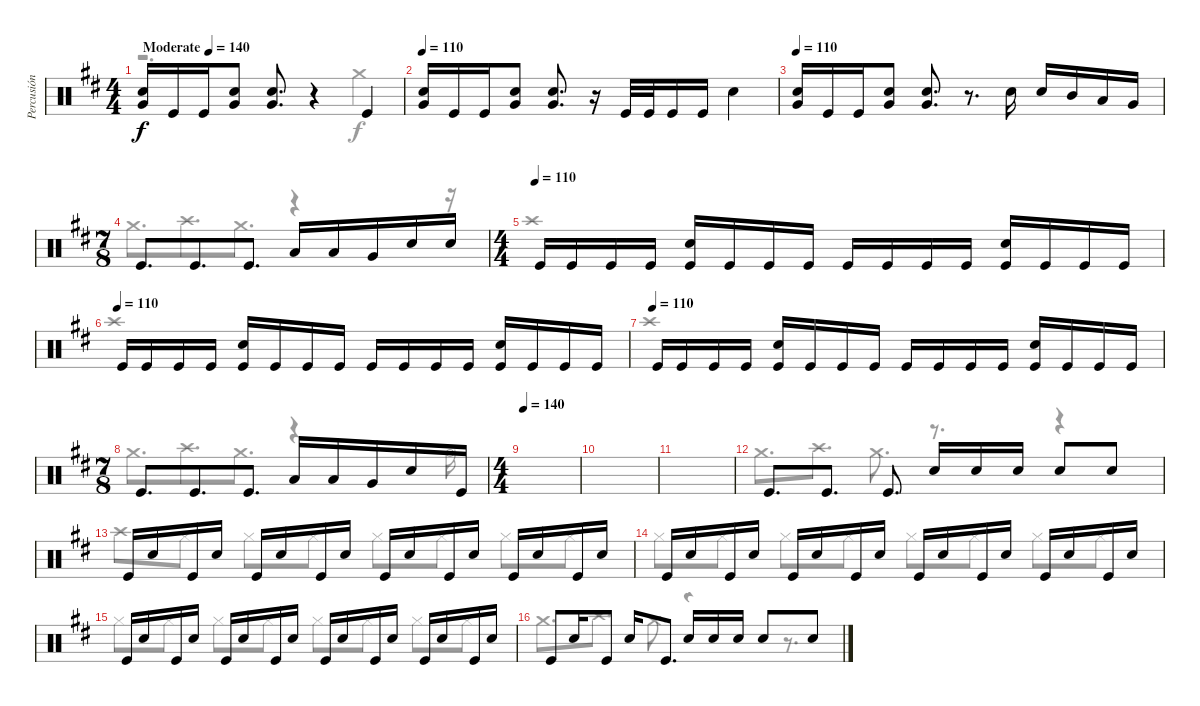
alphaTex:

\track ("Percusión" "Percusión") {instrument percussion}
\staff {score}
\articulation defaults
\voice
\ts (4 4)
\tempo (140 "Moderate")
\tempo 110
\tempo (140 "Moderate")
\clef neutral
\ks bminor
("Snare (hit) 2" "Very Low Tom (hit)").16{dy f} "Kick (hit)".16 "Kick (hit)".16 ("Snare (hit) 2" "Very Low Tom (hit)").8 ("Snare (hit) 2" "Very Low Tom (hit)").8{d} r.4 "Kick (hit)".4 |
\tempo 110
("Snare (hit) 2" "Very Low Tom (hit)").16 "Kick (hit)".16 "Kick (hit)".16 ("Snare (hit) 2" "Very Low Tom (hit)").8 ("Snare (hit) 2" "Very Low Tom (hit)").8{d} r.16 "Kick (hit)".32 "Kick (hit)".32 "Kick (hit)".16 "Kick (hit)".16 "Snare (hit) 2".4 |
\tempo 110
("Snare (hit) 2" "Very Low Tom (hit)").16 "Kick (hit)".16 "Kick (hit)".16 ("Snare (hit) 2" "Very Low Tom (hit)").8 ("Snare (hit) 2" "Very Low Tom (hit)").8{d} r.8{d} "Snare (hit) 2".16 "Snare (hit) 2".16 "Mid Tom (hit)".16 "Low Tom (hit)".16 "Very Low Tom (hit)".16 |
\ts (7 8)
"Kick (hit)".8{d} "Kick (hit)".8{d} "Kick (hit)".8{d} "Low Tom (hit)".16 "Low Tom (hit)".16 "Very Low Tom (hit)".16 "Snare (hit) 2".16 "Snare (hit) 2".16 |
\ts (4 4)
\tempo (110)
"Kick (hit)".16 "Kick (hit)".16 "Kick (hit)".16 "Kick (hit)".16 ("Snare (hit) 2" "Kick (hit)").16 "Kick (hit)".16 "Kick (hit)".16 "Kick (hit)".16 "Kick (hit)".16 "Kick (hit)".16 "Kick (hit)".16 "Kick (hit)".16 ("Snare (hit) 2" "Kick (hit)").16 "Kick (hit)".16 "Kick (hit)".16 "Kick (hit)".16 |
\tempo (110)
"Kick (hit)".16 "Kick (hit)".16 "Kick (hit)".16 "Kick (hit)".16 ("Snare (hit) 2" "Kick (hit)").16 "Kick (hit)".16 "Kick (hit)".16 "Kick (hit)".16 "Kick (hit)".16 "Kick (hit)".16 "Kick (hit)".16 "Kick (hit)".16 ("Snare (hit) 2" "Kick (hit)").16 "Kick (hit)".16 "Kick (hit)".16 "Kick (hit)".16 |
\tempo (110)
"Kick (hit)".16 "Kick (hit)".16 "Kick (hit)".16 "Kick (hit)".16 ("Snare (hit) 2" "Kick (hit)").16 "Kick (hit)".16 "Kick (hit)".16 "Kick (hit)".16 "Kick (hit)".16 "Kick (hit)".16 "Kick (hit)".16 "Kick (hit)".16 ("Snare (hit) 2" "Kick (hit)").16 "Kick (hit)".16 "Kick (hit)".16 "Kick (hit)".16 |
\ts (7 8)
"Kick (hit)".8{d} "Kick (hit)".8{d} "Kick (hit)".8{d} "Low Tom (hit)".16 "Low Tom (hit)".16 "Very Low Tom (hit)".16 "Snare (hit) 2".16 "Kick (hit)".16 |
\ts (4 4)
\tempo 140
|
|
|
"Kick (hit)".8{d} "Kick (hit)".8{d} "Kick (hit)".8{d} "Snare (hit) 2".16 "Snare (hit) 2".16 "Snare (hit) 2".16 "Snare (hit) 2".8 "Snare (hit) 2".8 |
"Kick (hit)".16 "Snare (hit) 2".16 "Kick (hit)".16 "Snare (hit) 2".16 "Kick (hit)".16 "Snare (hit) 2".16 "Kick (hit)".16 "Snare (hit) 2".16 "Kick (hit)".16 "Snare (hit) 2".16 "Kick (hit)".16 "Snare (hit) 2".16 "Kick (hit)".16 "Snare (hit) 2".16 "Kick (hit)".16 "Snare (hit) 2".16 |
"Kick (hit)".16 "Snare (hit) 2".16 "Kick (hit)".16 "Snare (hit) 2".16 "Kick (hit)".16 "Snare (hit) 2".16 "Kick (hit)".16 "Snare (hit) 2".16 "Kick (hit)".16 "Snare (hit) 2".16 "Kick (hit)".16 "Snare (hit) 2".16 "Kick (hit)".16 "Snare (hit) 2".16 "Kick (hit)".16 "Snare (hit) 2".16 |
"Kick (hit)".16 "Snare (hit) 2".16 "Kick (hit)".16 "Snare (hit) 2".16 "Kick (hit)".16 "Snare (hit) 2".16 "Kick (hit)".16 "Snare (hit) 2".16 "Kick (hit)".16 "Snare (hit) 2".16 "Kick (hit)".16 "Snare (hit) 2".16 "Kick (hit)".16 "Snare (hit) 2".16 "Kick (hit)".16 "Snare (hit) 2".16 |
"Kick (hit)".8 "Snare (hit) 2".16 "Kick (hit)".8 "Snare (hit) 2".16 "Kick (hit)".8{d} "Snare (hit) 2".16 "Snare (hit) 2".16 "Snare (hit) 2".16 "Snare (hit) 2".8 "Snare (hit) 2".8
\voice
\clef neutral
\ottava regular
\simile none
\ks bminor
r.2{d dy f} "Crash medium (hit)".4 |
|
|
"Crash medium (hit)".8{d} "Crash high (hit)".8{d} "Crash medium (hit)".8{d} r.4 r.16 |
"Crash high (hit)".1 |
"Crash high (hit)".1 |
"Crash high (hit)".1 |
"Crash medium (hit)".8{d} "Crash high (hit)".8{d} "Crash medium (hit)".8{d} r.4 "Hi-Hat (open)".16 |
|
|
|
"Crash medium (hit)".8{d} "Crash high (hit)".8{d} "Crash medium (hit)".8{d} r.8{d} r.4 |
"Crash high (hit)".8 "Hi-Hat (closed)".8 "Hi-Hat (closed)".8 "Hi-Hat (closed)".8 "Hi-Hat (closed)".8 "Hi-Hat (closed)".8 "Hi-Hat (closed)".8 "Hi-Hat (closed)".8 |
"Hi-Hat (closed)".8 "Hi-Hat (closed)".8 "Hi-Hat (closed)".8 "Hi-Hat (closed)".8 "Hi-Hat (closed)".8 "Hi-Hat (closed)".8 "Hi-Hat (closed)".8 "Hi-Hat (closed)".8 |
"Hi-Hat (closed)".8 "Hi-Hat (closed)".8 "Hi-Hat (closed)".8 "Hi-Hat (closed)".8 "Hi-Hat (closed)".8 "Hi-Hat (closed)".8 "Hi-Hat (closed)".8 "Hi-Hat (closed)".8 |
"Crash medium (hit)".8{d} "Crash high (hit)".8{d} "Crash medium (hit)".8{d} r.4 r.8{d}
